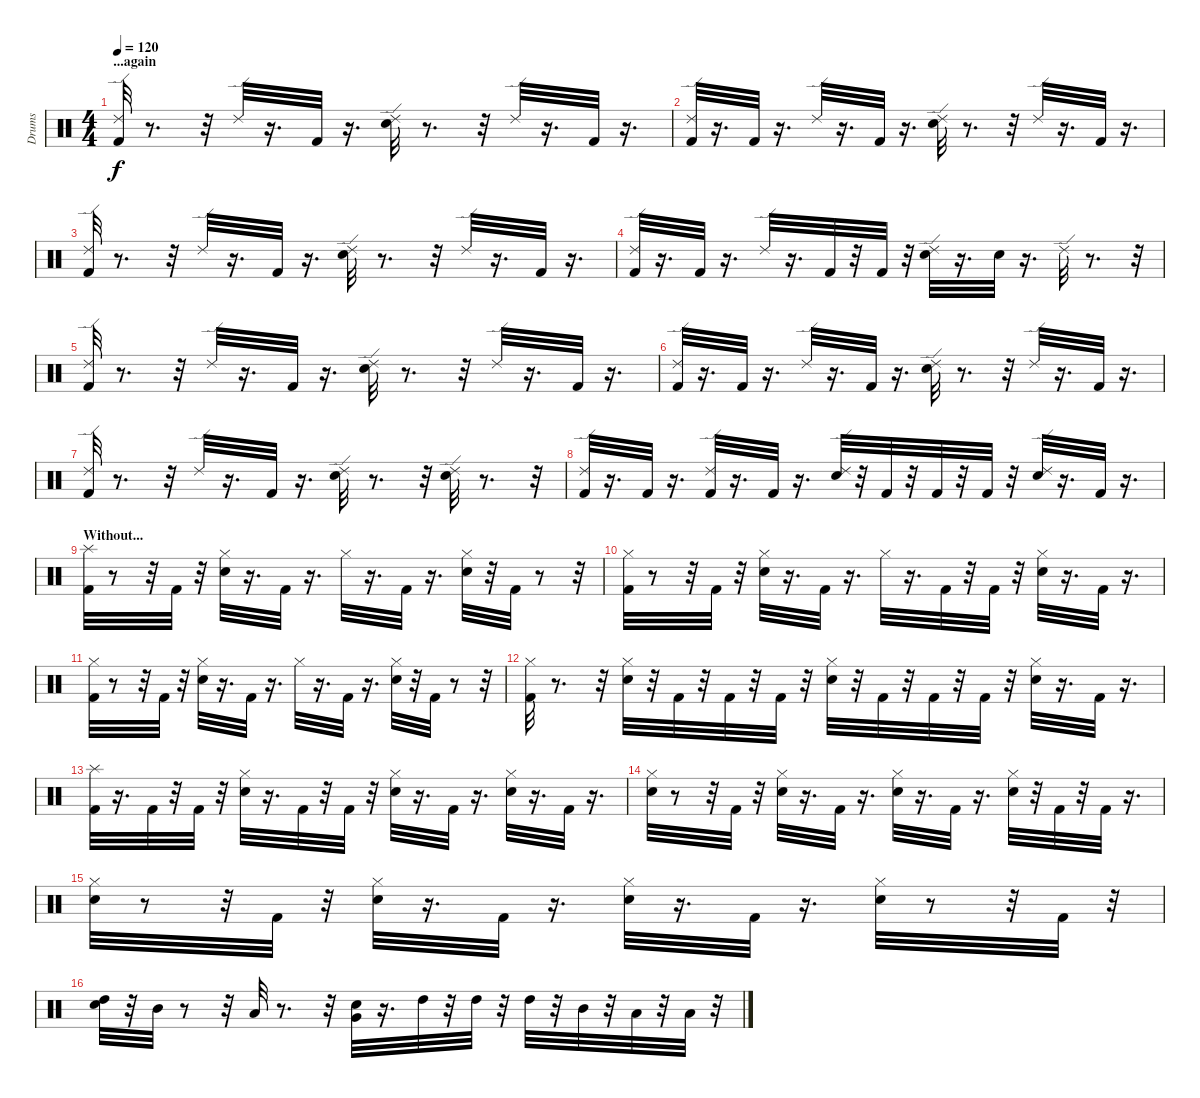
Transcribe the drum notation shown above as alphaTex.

\track ("Drums" "Drums") {instrument percussion}
\staff {score}
\articulation defaults
\ts (4 4)
\section ("" "...again")
\tempo 120
\clef neutral
\ks c
("Kick (hit) 2" "Ride (edge) 2").32{dy f} r.8{d} r.32 "Ride (edge) 2".32 r.16{d} "Kick (hit) 2".32 r.16{d} ("Snare (hit) 2" "Ride (edge) 2").32 r.8{d} r.32 "Ride (edge) 2".32 r.16{d} "Kick (hit) 2".32 r.16{d} |
("Kick (hit) 2" "Ride (edge) 2").32 r.16{d} "Kick (hit) 2".32 r.16{d} "Ride (edge) 2".32 r.16{d} "Kick (hit) 2".32 r.16{d} ("Snare (hit) 2" "Ride (edge) 2").32 r.8{d} r.32 "Ride (edge) 2".32 r.16{d} "Kick (hit) 2".32 r.16{d} |
("Kick (hit) 2" "Ride (edge) 2").32 r.8{d} r.32 "Ride (edge) 2".32 r.16{d} "Kick (hit) 2".32 r.16{d} ("Snare (hit) 2" "Ride (edge) 2").32 r.8{d} r.32 "Ride (edge) 2".32 r.16{d} "Kick (hit) 2".32 r.16{d} |
("Kick (hit) 2" "Ride (edge) 2").32 r.16{d} "Kick (hit) 2".32 r.16{d} "Ride (edge) 2".32 r.16{d} "Kick (hit) 2".32 r.32 "Kick (hit) 2".32 r.32 ("Snare (hit) 2" "Ride (edge) 2").32 r.16{d} "Snare (hit) 2".32 r.16{d} "Ride (edge) 2".32 r.8{d} r.32 |
("Kick (hit) 2" "Ride (edge) 2").32 r.8{d} r.32 "Ride (edge) 2".32 r.16{d} "Kick (hit) 2".32 r.16{d} ("Snare (hit) 2" "Ride (edge) 2").32 r.8{d} r.32 "Ride (edge) 2".32 r.16{d} "Kick (hit) 2".32 r.16{d} |
("Kick (hit) 2" "Ride (edge) 2").32 r.16{d} "Kick (hit) 2".32 r.16{d} "Ride (edge) 2".32 r.16{d} "Kick (hit) 2".32 r.16{d} ("Snare (hit) 2" "Ride (edge) 2").32 r.8{d} r.32 "Ride (edge) 2".32 r.16{d} "Kick (hit) 2".32 r.16{d} |
("Kick (hit) 2" "Ride (edge) 2").32 r.8{d} r.32 "Ride (edge) 2".32 r.16{d} "Kick (hit) 2".32 r.16{d} ("Snare (hit) 2" "Ride (edge) 2").32 r.8{d} r.32 ("Snare (hit) 2" "Ride (edge) 2").32 r.8{d} r.32 |
("Kick (hit) 2" "Ride (edge) 2").32 r.16{d} "Kick (hit) 2".32 r.16{d} ("Kick (hit) 2" "Ride (edge) 2").32 r.16{d} "Kick (hit) 2".32 r.16{d} ("Snare (hit) 2" "Ride (edge) 2").32 r.32 "Kick (hit) 2".32 r.32 "Kick (hit) 2".32 r.32 "Kick (hit) 2".32 r.32 ("Snare (hit) 2" "Ride (edge) 2").32 r.16{d} "Kick (hit) 2".32 r.16{d} |
\section ("" "Without...")
("Kick (hit) 2" "Splash (hit)").32 r.8 r.32 "Kick (hit) 2".32 r.32 ("Snare (hit) 2" "Hi-Hat (closed)").32 r.16{d} "Kick (hit) 2".32 r.16{d} "Hi-Hat (closed)".32 r.16{d} "Kick (hit) 2".32 r.16{d} ("Snare (hit) 2" "Hi-Hat (closed)").32 r.32 "Kick (hit) 2".32 r.8 r.32 |
("Kick (hit) 2" "Hi-Hat (closed)").32 r.8 r.32 "Kick (hit) 2".32 r.32 ("Snare (hit) 2" "Hi-Hat (closed)").32 r.16{d} "Kick (hit) 2".32 r.16{d} "Hi-Hat (closed)".32 r.16{d} "Kick (hit) 2".32 r.32 "Kick (hit) 2".32 r.32 ("Snare (hit) 2" "Hi-Hat (closed)").32 r.16{d} "Kick (hit) 2".32 r.16{d} |
("Kick (hit) 2" "Hi-Hat (closed)").32 r.8 r.32 "Kick (hit) 2".32 r.32 ("Snare (hit) 2" "Hi-Hat (closed)").32 r.16{d} "Kick (hit) 2".32 r.16{d} "Hi-Hat (closed)".32 r.16{d} "Kick (hit) 2".32 r.16{d} ("Snare (hit) 2" "Hi-Hat (closed)").32 r.32 "Kick (hit) 2".32 r.8 r.32 |
("Kick (hit) 2" "Hi-Hat (closed)").32 r.8{d} r.32 ("Snare (hit) 2" "Hi-Hat (closed)").32 r.32 "Kick (hit) 2".32 r.32 "Kick (hit) 2".32 r.32 "Kick (hit) 2".32 r.32 ("Snare (hit) 2" "Hi-Hat (closed)").32 r.32 "Kick (hit) 2".32 r.32 "Kick (hit) 2".32 r.32 "Kick (hit) 2".32 r.32 ("Snare (hit) 2" "Hi-Hat (closed)").32 r.16{d} "Kick (hit) 2".32 r.16{d} |
("Kick (hit) 2" "Splash (hit)").32 r.16{d} "Kick (hit) 2".32 r.32 "Kick (hit) 2".32 r.32 ("Snare (hit) 2" "Hi-Hat (closed)").32 r.16{d} "Kick (hit) 2".32 r.32 "Kick (hit) 2".32 r.32 ("Snare (hit) 2" "Hi-Hat (closed)").32 r.16{d} "Kick (hit) 2".32 r.16{d} ("Snare (hit) 2" "Hi-Hat (closed)").32 r.16{d} "Kick (hit) 2".32 r.16{d} |
("Snare (hit) 2" "Hi-Hat (closed)").32 r.8 r.32 "Kick (hit) 2".32 r.32 ("Snare (hit) 2" "Hi-Hat (closed)").32 r.16{d} "Kick (hit) 2".32 r.16{d} ("Snare (hit) 2" "Hi-Hat (closed)").32 r.16{d} "Kick (hit) 2".32 r.16{d} ("Snare (hit) 2" "Hi-Hat (closed)").32 r.32 "Kick (hit) 2".32 r.32 "Kick (hit) 2".32 r.16{d} |
("Snare (hit) 2" "Hi-Hat (closed)").32 r.8 r.32 "Kick (hit) 2".32 r.32 ("Snare (hit) 2" "Hi-Hat (closed)").32 r.16{d} "Kick (hit) 2".32 r.16{d} ("Snare (hit) 2" "Hi-Hat (closed)").32 r.16{d} "Kick (hit) 2".32 r.16{d} ("Snare (hit) 2" "Hi-Hat (closed)").32 r.8 r.32 "Kick (hit) 2".32 r.32 |
("Snare (hit) 2" "High Tom (hit)").32 r.32 "Mid Tom (hit)".32 r.8 r.32 "Low Tom (hit)".32 r.8{d} r.32 ("Snare (hit) 2" "Very Low Tom (hit)").32 r.16{d} "High Tom (hit)".32 r.32 "High Tom (hit)".32 r.32 "High Tom (hit)".32 r.32 "Mid Tom (hit)".32 r.32 "Low Tom (hit)".32 r.32 "Low Floor Tom (hit)".32 r.32
